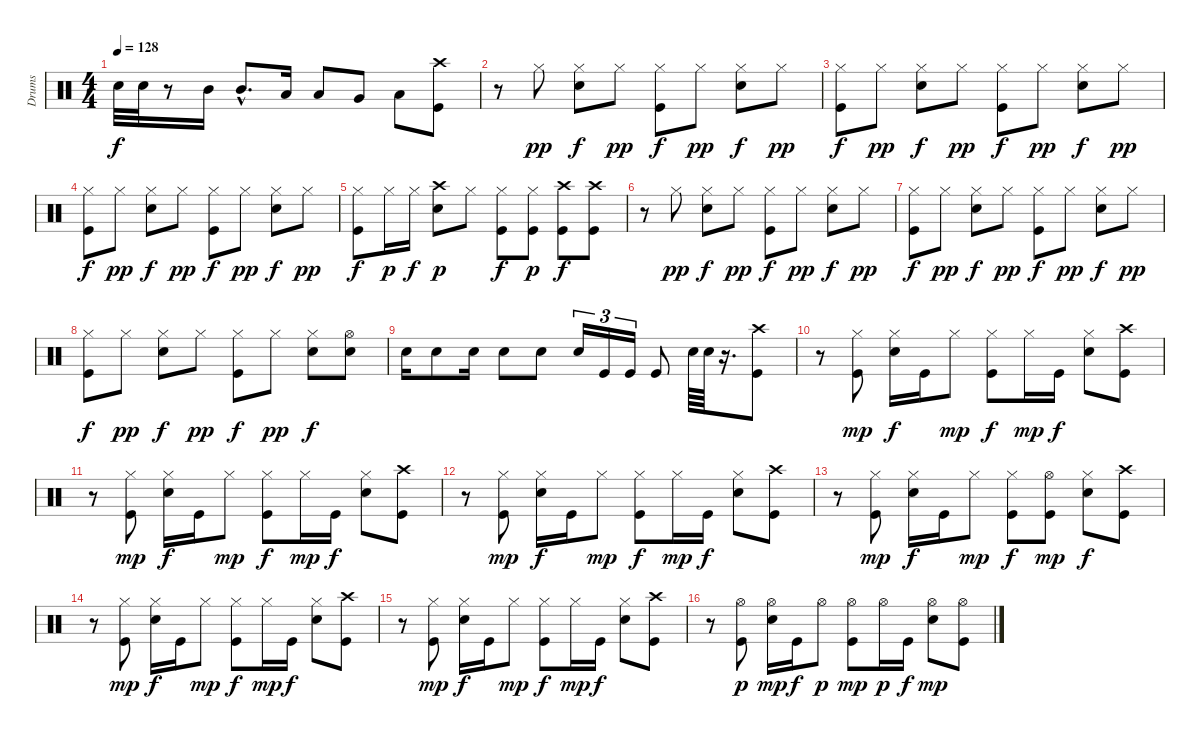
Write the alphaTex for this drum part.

\track ("Drums" "Drums") {instrument percussion}
\staff {score}
\articulation defaults
\ts (4 4)
\tempo 128
\clef neutral
\ks c "Snare (hit) 2".32{dy f} "Snare (hit) 2".32
r.8 "Mid Tom (hit)".16 "Mid Tom (hit)"{hac}.8{d} "Low Tom (hit)".16 "Low Tom (hit)".8 "Very Low Tom (hit)".8 "Low Floor Tom (hit)".8 ("Crash high (hit)" "Kick (hit)").8 |
r.8 "Hi-Hat (closed)".8{dy pp} ("Hi-Hat (closed)" "Snare (hit) 2").8{dy f} "Hi-Hat (closed)".8{dy pp} ("Hi-Hat (closed)" "Kick (hit)").8{dy f} "Hi-Hat (closed)".8{dy pp} ("Hi-Hat (closed)" "Snare (hit) 2").8{dy f} "Hi-Hat (closed)".8{dy pp} |
("Hi-Hat (closed)" "Kick (hit)").8{dy f} "Hi-Hat (closed)".8{dy pp} ("Hi-Hat (closed)" "Snare (hit) 2").8{dy f} "Hi-Hat (closed)".8{dy pp} ("Hi-Hat (closed)" "Kick (hit)").8{dy f} "Hi-Hat (closed)".8{dy pp} ("Hi-Hat (closed)" "Snare (hit) 2").8{dy f} "Hi-Hat (closed)".8{dy pp} |
("Hi-Hat (closed)" "Kick (hit)").8{dy f} "Hi-Hat (closed)".8{dy pp} ("Hi-Hat (closed)" "Snare (hit) 2").8{dy f} "Hi-Hat (closed)".8{dy pp} ("Hi-Hat (closed)" "Kick (hit)").8{dy f} "Hi-Hat (closed)".8{dy pp} ("Hi-Hat (closed)" "Snare (hit) 2").8{dy f} "Hi-Hat (closed)".8{dy pp} |
("Hi-Hat (closed)" "Kick (hit)").8{dy f} "Hi-Hat (closed)".16{dy p} "Hi-Hat (closed)".16{dy f} ("Crash high (hit)" "Snare (hit) 2").8{dy p} "Hi-Hat (closed)".8 ("Hi-Hat (closed)" "Kick (hit)").8{dy f} ("Hi-Hat (closed)" "Kick (hit)").8{dy p} ("Crash high (hit)" "Kick (hit)").8{dy f} ("Crash high (hit)" "Kick (hit)").8 |
r.8 "Hi-Hat (closed)".8{dy pp} ("Hi-Hat (closed)" "Snare (hit) 2").8{dy f} "Hi-Hat (closed)".8{dy pp} ("Hi-Hat (closed)" "Kick (hit)").8{dy f} "Hi-Hat (closed)".8{dy pp} ("Hi-Hat (closed)" "Snare (hit) 2").8{dy f} "Hi-Hat (closed)".8{dy pp} |
("Hi-Hat (closed)" "Kick (hit)").8{dy f} "Hi-Hat (closed)".8{dy pp} ("Hi-Hat (closed)" "Snare (hit) 2").8{dy f} "Hi-Hat (closed)".8{dy pp} ("Hi-Hat (closed)" "Kick (hit)").8{dy f} "Hi-Hat (closed)".8{dy pp} ("Hi-Hat (closed)" "Snare (hit) 2").8{dy f} "Hi-Hat (closed)".8{dy pp} |
("Hi-Hat (closed)" "Kick (hit)").8{dy f} "Hi-Hat (closed)".8{dy pp} ("Hi-Hat (closed)" "Snare (hit) 2").8{dy f} "Hi-Hat (closed)".8{dy pp} ("Hi-Hat (closed)" "Kick (hit)").8{dy f} "Hi-Hat (closed)".8{dy pp} ("Hi-Hat (closed)" "Snare (hit) 2").8{dy f} ("Hi-Hat (open)" "Snare (hit) 2").8 |
"Snare (hit) 2".16 "Snare (hit) 2".8 "Snare (hit) 2".16 "Snare (hit) 2".8 "Snare (hit) 2".8 "Snare (hit) 2".16{tu (3 2)} "Kick (hit)".16{tu (3 2)} "Kick (hit)".16{tu (3 2)} "Kick (hit)".8 "Snare (hit) 2".64 "Snare (hit) 2".64 r.16{d} ("Crash high (hit)" "Kick (hit)").8 |
r.8 ("Hi-Hat (closed)" "Kick (hit)").8{dy mp} ("Hi-Hat (closed)" "Snare (hit) 2").16{dy f} "Kick (hit)".16 "Hi-Hat (closed)".8{dy mp} ("Hi-Hat (closed)" "Kick (hit)").8{dy f} "Hi-Hat (closed)".16{dy mp} "Kick (hit)".16{dy f} ("Hi-Hat (closed)" "Snare (hit) 2").8 ("Crash high (hit)" "Kick (hit)").8 |
r.8 ("Hi-Hat (closed)" "Kick (hit)").8{dy mp} ("Hi-Hat (closed)" "Snare (hit) 2").16{dy f} "Kick (hit)".16 "Hi-Hat (closed)".8{dy mp} ("Hi-Hat (closed)" "Kick (hit)").8{dy f} "Hi-Hat (closed)".16{dy mp} "Kick (hit)".16{dy f} ("Hi-Hat (closed)" "Snare (hit) 2").8 ("Crash high (hit)" "Kick (hit)").8 |
r.8 ("Hi-Hat (closed)" "Kick (hit)").8{dy mp} ("Hi-Hat (closed)" "Snare (hit) 2").16{dy f} "Kick (hit)".16 "Hi-Hat (closed)".8{dy mp} ("Hi-Hat (closed)" "Kick (hit)").8{dy f} "Hi-Hat (closed)".16{dy mp} "Kick (hit)".16{dy f} ("Hi-Hat (closed)" "Snare (hit) 2").8 ("Crash high (hit)" "Kick (hit)").8 |
r.8 ("Hi-Hat (closed)" "Kick (hit)").8{dy mp} ("Hi-Hat (closed)" "Snare (hit) 2").16{dy f} "Kick (hit)".16 "Hi-Hat (closed)".8{dy mp} ("Hi-Hat (closed)" "Kick (hit)").8{dy f} ("Hi-Hat (open)" "Kick (hit)").8{dy mp} ("Hi-Hat (closed)" "Snare (hit) 2").8{dy f} ("Crash high (hit)" "Kick (hit)").8 |
r.8 ("Hi-Hat (closed)" "Kick (hit)").8{dy mp} ("Hi-Hat (closed)" "Snare (hit) 2").16{dy f} "Kick (hit)".16 "Hi-Hat (closed)".8{dy mp} ("Hi-Hat (closed)" "Kick (hit)").8{dy f} "Hi-Hat (closed)".16{dy mp} "Kick (hit)".16{dy f} ("Hi-Hat (closed)" "Snare (hit) 2").8 ("Crash high (hit)" "Kick (hit)").8 |
r.8 ("Hi-Hat (closed)" "Kick (hit)").8{dy mp} ("Hi-Hat (closed)" "Snare (hit) 2").16{dy f} "Kick (hit)".16 "Hi-Hat (closed)".8{dy mp} ("Hi-Hat (closed)" "Kick (hit)").8{dy f} "Hi-Hat (closed)".16{dy mp} "Kick (hit)".16{dy f} ("Hi-Hat (closed)" "Snare (hit) 2").8 ("Crash high (hit)" "Kick (hit)").8 |
r.8 ("Hi-Hat (open)" "Kick (hit)").8{dy p} ("Hi-Hat (open)" "Snare (hit) 2").16{dy mp} "Kick (hit)".16{dy f} "Hi-Hat (open)".8{dy p} ("Hi-Hat (open)" "Kick (hit)").8{dy mp} "Hi-Hat (open)".16{dy p} "Kick (hit)".16{dy f} ("Hi-Hat (open)" "Snare (hit) 2").8{dy mp} ("Hi-Hat (open)" "Kick (hit)").8
